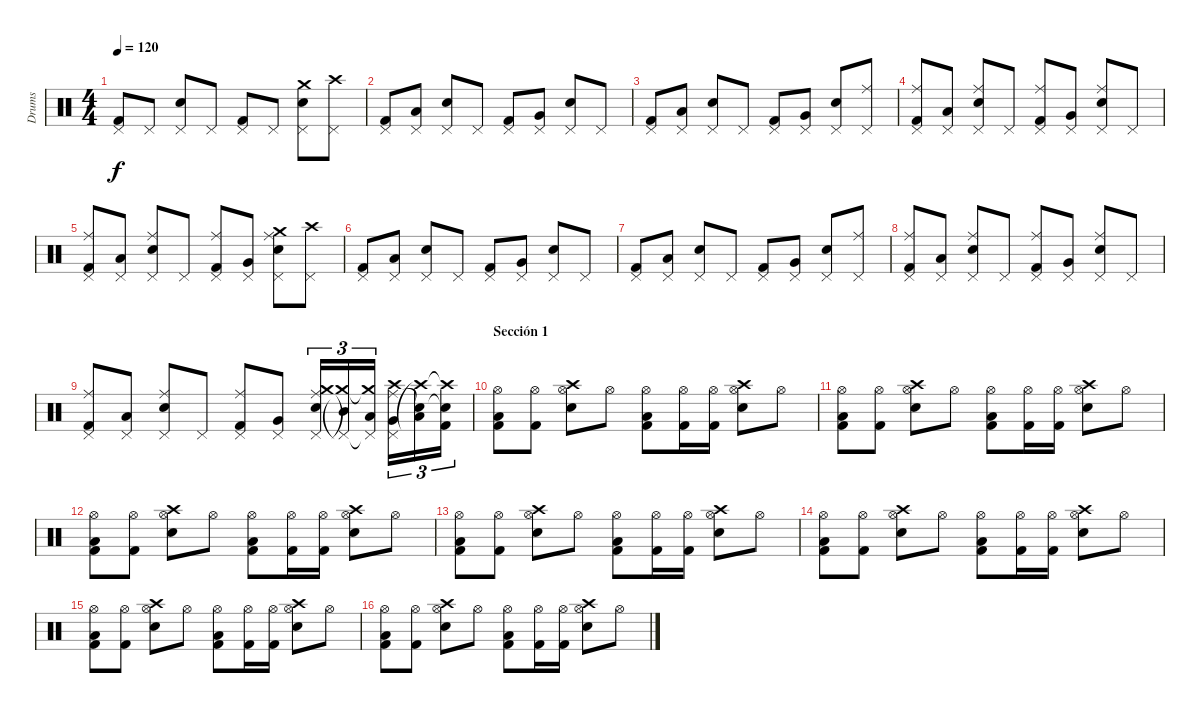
\track ("Drums" "Drums") {instrument percussion}
\staff {score}
\articulation defaults
\ts (4 4)
\tempo 120
\clef neutral
\ks c
("Pedal Hi-Hat (hit)" "Kick (hit) 2").8{dy f} "Pedal Hi-Hat (hit)".8 ("Pedal Hi-Hat (hit)" "Snare (hit) 2").8 "Pedal Hi-Hat (hit)".8 ("Pedal Hi-Hat (hit)" "Kick (hit) 2").8 "Pedal Hi-Hat (hit)".8 ("Pedal Hi-Hat (hit)" "Crash medium (hit)" "Snare (hit) 2").8 ("Pedal Hi-Hat (hit)" "Crash high (hit)").8 |
("Pedal Hi-Hat (hit)" "Kick (hit) 2").8 ("Pedal Hi-Hat (hit)" "Low Tom (hit)").8 ("Pedal Hi-Hat (hit)" "Snare (hit) 2").8 "Pedal Hi-Hat (hit)".8 ("Pedal Hi-Hat (hit)" "Kick (hit) 2").8 ("Pedal Hi-Hat (hit)" "Very Low Tom (hit)").8 ("Pedal Hi-Hat (hit)" "Snare (hit) 2").8 "Pedal Hi-Hat (hit)".8 |
("Pedal Hi-Hat (hit)" "Kick (hit) 2").8 ("Pedal Hi-Hat (hit)" "Low Tom (hit)").8 ("Pedal Hi-Hat (hit)" "Snare (hit) 2").8 "Pedal Hi-Hat (hit)".8 ("Pedal Hi-Hat (hit)" "Kick (hit) 2").8 ("Pedal Hi-Hat (hit)" "Very Low Tom (hit)").8 ("Pedal Hi-Hat (hit)" "Snare (hit) 2").8 ("Pedal Hi-Hat (hit)" "Ride (middle)").8 |
("Ride (middle)" "Pedal Hi-Hat (hit)" "Kick (hit) 2").8 ("Pedal Hi-Hat (hit)" "Low Tom (hit)").8 ("Ride (middle)" "Pedal Hi-Hat (hit)" "Snare (hit) 2").8 "Pedal Hi-Hat (hit)".8 ("Ride (middle)" "Pedal Hi-Hat (hit)" "Kick (hit) 2").8 ("Pedal Hi-Hat (hit)" "Very Low Tom (hit)").8 ("Ride (middle)" "Pedal Hi-Hat (hit)" "Snare (hit) 2").8 "Pedal Hi-Hat (hit)".8 |
("Ride (middle)" "Pedal Hi-Hat (hit)" "Kick (hit) 2").8 ("Pedal Hi-Hat (hit)" "Low Tom (hit)").8 ("Ride (middle)" "Pedal Hi-Hat (hit)" "Snare (hit) 2").8 "Pedal Hi-Hat (hit)".8 ("Ride (middle)" "Pedal Hi-Hat (hit)" "Kick (hit) 2").8 ("Pedal Hi-Hat (hit)" "Very Low Tom (hit)").8 ("Ride (middle)" "Pedal Hi-Hat (hit)" "Crash medium (hit)" "Snare (hit) 2").8 ("Pedal Hi-Hat (hit)" "Crash high (hit)").8 |
("Pedal Hi-Hat (hit)" "Kick (hit) 2").8 ("Pedal Hi-Hat (hit)" "Low Tom (hit)").8 ("Pedal Hi-Hat (hit)" "Snare (hit) 2").8 "Pedal Hi-Hat (hit)".8 ("Pedal Hi-Hat (hit)" "Kick (hit) 2").8 ("Pedal Hi-Hat (hit)" "Very Low Tom (hit)").8 ("Pedal Hi-Hat (hit)" "Snare (hit) 2").8 "Pedal Hi-Hat (hit)".8 |
("Pedal Hi-Hat (hit)" "Kick (hit) 2").8 ("Pedal Hi-Hat (hit)" "Low Tom (hit)").8 ("Pedal Hi-Hat (hit)" "Snare (hit) 2").8 "Pedal Hi-Hat (hit)".8 ("Pedal Hi-Hat (hit)" "Kick (hit) 2").8 ("Pedal Hi-Hat (hit)" "Very Low Tom (hit)").8 ("Pedal Hi-Hat (hit)" "Snare (hit) 2").8 ("Pedal Hi-Hat (hit)" "Ride (middle)").8 |
("Ride (middle)" "Pedal Hi-Hat (hit)" "Kick (hit) 2").8 ("Pedal Hi-Hat (hit)" "Low Tom (hit)").8 ("Ride (middle)" "Pedal Hi-Hat (hit)" "Snare (hit) 2").8 "Pedal Hi-Hat (hit)".8 ("Ride (middle)" "Pedal Hi-Hat (hit)" "Kick (hit) 2").8 ("Pedal Hi-Hat (hit)" "Very Low Tom (hit)").8 ("Ride (middle)" "Pedal Hi-Hat (hit)" "Snare (hit) 2").8 "Pedal Hi-Hat (hit)".8 |
("Ride (middle)" "Pedal Hi-Hat (hit)" "Kick (hit) 2").8 ("Pedal Hi-Hat (hit)" "Low Tom (hit)").8 ("Ride (middle)" "Pedal Hi-Hat (hit)" "Snare (hit) 2").8 "Pedal Hi-Hat (hit)".8 ("Ride (middle)" "Pedal Hi-Hat (hit)" "Kick (hit) 2").8 ("Pedal Hi-Hat (hit)" "Very Low Tom (hit)").8 ("Ride (middle)" "Pedal Hi-Hat (hit)" "Crash medium (hit)" "Snare (hit) 2").16{tu (3 2)} ("Pedal Hi-Hat (hit)"{t} "Crash medium (hit)"{t} "Mid Tom (hit)").16{tu (3 2)} ("Pedal Hi-Hat (hit)"{t} "Crash medium (hit)"{t} "Low Tom (hit)").16{tu (3 2)} ("Ride (middle)" "Pedal Hi-Hat (hit)" "Crash high (hit)" "Very Low Tom (hit)").16{tu (3 2)} ("Snare (hit)"{t} "Crash high (hit)"{t} "Low Floor Tom (hit)").16{tu (3 2)} ("Snare (hit)"{t} "Crash high (hit)"{t} "Kick (hit) 2").16{tu (3 2)} |
\section ("" "Sección 1")
("Hi-Hat (open)" "Low Tom (hit)" "Kick (hit) 2").8 ("Hi-Hat (open)" "Kick (hit) 2").8 ("Hi-Hat (open)" "Crash high (hit)" "Snare (hit) 2").8 "Hi-Hat (open)".8 ("Hi-Hat (open)" "Low Tom (hit)" "Kick (hit) 2").8 ("Hi-Hat (open)" "Kick (hit) 2").16 ("Hi-Hat (open)" "Kick (hit) 2").16 ("Hi-Hat (open)" "Crash high (hit)" "Snare (hit) 2").8 "Hi-Hat (open)".8 |
("Hi-Hat (open)" "Low Tom (hit)" "Kick (hit) 2").8 ("Hi-Hat (open)" "Kick (hit) 2").8 ("Hi-Hat (open)" "Crash high (hit)" "Snare (hit) 2").8 "Hi-Hat (open)".8 ("Hi-Hat (open)" "Low Tom (hit)" "Kick (hit) 2").8 ("Hi-Hat (open)" "Kick (hit) 2").16 ("Hi-Hat (open)" "Kick (hit) 2").16 ("Hi-Hat (open)" "Crash high (hit)" "Snare (hit) 2").8 "Hi-Hat (open)".8 |
("Hi-Hat (open)" "Low Tom (hit)" "Kick (hit) 2").8 ("Hi-Hat (open)" "Kick (hit) 2").8 ("Hi-Hat (open)" "Crash high (hit)" "Snare (hit) 2").8 "Hi-Hat (open)".8 ("Hi-Hat (open)" "Low Tom (hit)" "Kick (hit) 2").8 ("Hi-Hat (open)" "Kick (hit) 2").16 ("Hi-Hat (open)" "Kick (hit) 2").16 ("Hi-Hat (open)" "Crash high (hit)" "Snare (hit) 2").8 "Hi-Hat (open)".8 |
("Hi-Hat (open)" "Low Tom (hit)" "Kick (hit) 2").8 ("Hi-Hat (open)" "Kick (hit) 2").8 ("Hi-Hat (open)" "Crash high (hit)" "Snare (hit) 2").8 "Hi-Hat (open)".8 ("Hi-Hat (open)" "Low Tom (hit)" "Kick (hit) 2").8 ("Hi-Hat (open)" "Kick (hit) 2").16 ("Hi-Hat (open)" "Kick (hit) 2").16 ("Hi-Hat (open)" "Crash high (hit)" "Snare (hit) 2").8 "Hi-Hat (open)".8 |
("Hi-Hat (open)" "Low Tom (hit)" "Kick (hit) 2").8 ("Hi-Hat (open)" "Kick (hit) 2").8 ("Hi-Hat (open)" "Crash high (hit)" "Snare (hit) 2").8 "Hi-Hat (open)".8 ("Hi-Hat (open)" "Low Tom (hit)" "Kick (hit) 2").8 ("Hi-Hat (open)" "Kick (hit) 2").16 ("Hi-Hat (open)" "Kick (hit) 2").16 ("Hi-Hat (open)" "Crash high (hit)" "Snare (hit) 2").8 "Hi-Hat (open)".8 |
("Hi-Hat (open)" "Low Tom (hit)" "Kick (hit) 2").8 ("Hi-Hat (open)" "Kick (hit) 2").8 ("Hi-Hat (open)" "Crash high (hit)" "Snare (hit) 2").8 "Hi-Hat (open)".8 ("Hi-Hat (open)" "Low Tom (hit)" "Kick (hit) 2").8 ("Hi-Hat (open)" "Kick (hit) 2").16 ("Hi-Hat (open)" "Kick (hit) 2").16 ("Hi-Hat (open)" "Crash high (hit)" "Snare (hit) 2").8 "Hi-Hat (open)".8 |
("Hi-Hat (open)" "Low Tom (hit)" "Kick (hit) 2").8 ("Hi-Hat (open)" "Kick (hit) 2").8 ("Hi-Hat (open)" "Crash high (hit)" "Snare (hit) 2").8 "Hi-Hat (open)".8 ("Hi-Hat (open)" "Low Tom (hit)" "Kick (hit) 2").8 ("Hi-Hat (open)" "Kick (hit) 2").16 ("Hi-Hat (open)" "Kick (hit) 2").16 ("Hi-Hat (open)" "Crash high (hit)" "Snare (hit) 2").8 "Hi-Hat (open)".8
